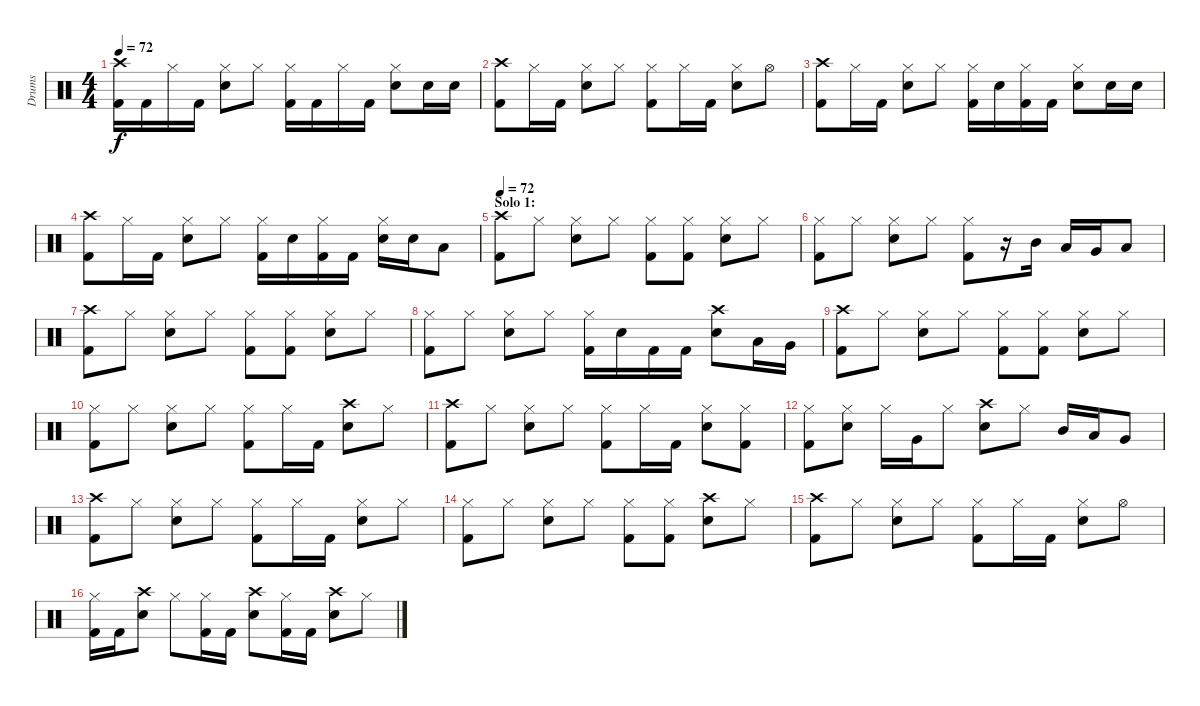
\track ("Drums" "Drums") {instrument percussion}
\staff {score}
\articulation defaults
\ts (4 4)
\tempo 72
\clef neutral
\ks c
("Crash high (hit)" "Kick (hit) 2").16{dy f} "Kick (hit) 2".16 "Hi-Hat (closed)".16 "Kick (hit) 2".16 ("Hi-Hat (closed)" "Electric Snare (hit)").8 "Hi-Hat (closed)".8 ("Hi-Hat (closed)" "Kick (hit) 2").16 "Kick (hit) 2".16 "Hi-Hat (closed)".16 "Kick (hit) 2".16 ("Hi-Hat (closed)" "Electric Snare (hit)").8 "Electric Snare (hit)".16 "Electric Snare (hit)".16 |
("Crash high (hit)" "Kick (hit) 2").8 "Hi-Hat (closed)".16 "Kick (hit) 2".16 ("Hi-Hat (closed)" "Electric Snare (hit)").8 "Hi-Hat (closed)".8 ("Hi-Hat (closed)" "Kick (hit) 2").8 "Hi-Hat (closed)".16 "Kick (hit) 2".16 ("Hi-Hat (closed)" "Electric Snare (hit)").8 "Hi-Hat (open)".8 |
("Crash high (hit)" "Kick (hit) 2").8 "Hi-Hat (closed)".16 "Kick (hit) 2".16 ("Hi-Hat (closed)" "Electric Snare (hit)").8 "Hi-Hat (closed)".8 ("Hi-Hat (closed)" "Kick (hit) 2").16 "Electric Snare (hit)".16 ("Hi-Hat (closed)" "Kick (hit) 2").16 "Kick (hit) 2".16 ("Hi-Hat (closed)" "Electric Snare (hit)").8 "Electric Snare (hit)".16 "Electric Snare (hit)".16 |
("Crash high (hit)" "Kick (hit) 2").8 "Hi-Hat (closed)".16 "Kick (hit) 2".16 ("Hi-Hat (closed)" "Electric Snare (hit)").8 "Hi-Hat (closed)".8 ("Hi-Hat (closed)" "Kick (hit) 2").16 "Electric Snare (hit)".16 ("Hi-Hat (closed)" "Kick (hit) 2").16 "Kick (hit) 2".16 ("Hi-Hat (closed)" "Electric Snare (hit)").16 "Electric Snare (hit)".16 "Low Tom (hit)".8 |
\section ("" "Solo 1:")
\tempo 72
("Crash high (hit)" "Kick (hit) 2").8 "Hi-Hat (closed)".8 ("Hi-Hat (closed)" "Electric Snare (hit)").8 "Hi-Hat (closed)".8 ("Hi-Hat (closed)" "Kick (hit) 2").8 ("Hi-Hat (closed)" "Kick (hit) 2").8 ("Hi-Hat (closed)" "Electric Snare (hit)").8 "Hi-Hat (closed)".8 |
("Hi-Hat (closed)" "Kick (hit) 2").8 "Hi-Hat (closed)".8 ("Hi-Hat (closed)" "Electric Snare (hit)").8 "Hi-Hat (closed)".8 ("Hi-Hat (closed)" "Kick (hit) 2").8 r.16 "Mid Tom (hit)".16 "Low Tom (hit)".16 "Very Low Tom (hit)".16 "Low Floor Tom (hit)".8 |
("Crash high (hit)" "Kick (hit) 2").8 "Hi-Hat (closed)".8 ("Hi-Hat (closed)" "Electric Snare (hit)").8 "Hi-Hat (closed)".8 ("Hi-Hat (closed)" "Kick (hit) 2").8 ("Hi-Hat (closed)" "Kick (hit) 2").8 ("Hi-Hat (closed)" "Electric Snare (hit)").8 "Hi-Hat (closed)".8 |
("Hi-Hat (closed)" "Kick (hit) 2").8 "Hi-Hat (closed)".8 ("Hi-Hat (closed)" "Electric Snare (hit)").8 "Hi-Hat (closed)".8 ("Hi-Hat (closed)" "Kick (hit) 2").16 "Electric Snare (hit)".16 "Kick (hit) 2".16 "Kick (hit) 2".16 ("Crash high (hit)" "Electric Snare (hit)").8 "Low Tom (hit)".16 "Very Low Tom (hit)".16 |
("Crash high (hit)" "Kick (hit) 2").8 "Hi-Hat (closed)".8 ("Hi-Hat (closed)" "Electric Snare (hit)").8 "Hi-Hat (closed)".8 ("Hi-Hat (closed)" "Kick (hit) 2").8 ("Hi-Hat (closed)" "Kick (hit) 2").8 ("Hi-Hat (closed)" "Electric Snare (hit)").8 "Hi-Hat (closed)".8 |
("Hi-Hat (closed)" "Kick (hit) 2").8 "Hi-Hat (closed)".8 ("Hi-Hat (closed)" "Electric Snare (hit)").8 "Hi-Hat (closed)".8 ("Hi-Hat (closed)" "Kick (hit) 2").8 "Hi-Hat (closed)".16 "Kick (hit) 2".16 ("Crash high (hit)" "Electric Snare (hit)").8 "Hi-Hat (closed)".8 |
("Crash high (hit)" "Kick (hit) 2").8 "Hi-Hat (closed)".8 ("Hi-Hat (closed)" "Electric Snare (hit)").8 "Hi-Hat (closed)".8 ("Hi-Hat (closed)" "Kick (hit) 2").8 "Hi-Hat (closed)".16 "Kick (hit) 2".16 ("Hi-Hat (closed)" "Electric Snare (hit)").8 ("Hi-Hat (closed)" "Kick (hit) 2").8 |
("Hi-Hat (closed)" "Kick (hit) 2").8 ("Hi-Hat (closed)" "Electric Snare (hit)").8 "Hi-Hat (closed)".16 "Very Low Tom (hit)".16 "Hi-Hat (closed)".8 ("Crash high (hit)" "Electric Snare (hit)").8 "Hi-Hat (closed)".8 "Mid Tom (hit)".16 "Low Tom (hit)".16 "Very Low Tom (hit)".8 |
("Crash high (hit)" "Kick (hit) 2").8 "Hi-Hat (closed)".8 ("Hi-Hat (closed)" "Electric Snare (hit)").8 "Hi-Hat (closed)".8 ("Hi-Hat (closed)" "Kick (hit) 2").8 "Hi-Hat (closed)".16 "Kick (hit) 2".16 ("Hi-Hat (closed)" "Electric Snare (hit)").8 "Hi-Hat (closed)".8 |
("Hi-Hat (closed)" "Kick (hit) 2").8 "Hi-Hat (closed)".8 ("Hi-Hat (closed)" "Electric Snare (hit)").8 "Hi-Hat (closed)".8 ("Hi-Hat (closed)" "Kick (hit) 2").8 ("Hi-Hat (closed)" "Kick (hit) 2").8 ("Crash high (hit)" "Electric Snare (hit)").8 "Hi-Hat (closed)".8 |
("Crash high (hit)" "Kick (hit) 2").8 "Hi-Hat (closed)".8 ("Hi-Hat (closed)" "Electric Snare (hit)").8 "Hi-Hat (closed)".8 ("Hi-Hat (closed)" "Kick (hit) 2").8 "Hi-Hat (closed)".16 "Kick (hit) 2".16 ("Hi-Hat (closed)" "Electric Snare (hit)").8 "Hi-Hat (open)".8 |
("Hi-Hat (closed)" "Kick (hit) 2").16 "Kick (hit) 2".16 ("Crash high (hit)" "Electric Snare (hit)").8 "Hi-Hat (closed)".8 ("Hi-Hat (closed)" "Kick (hit) 2").16 "Kick (hit) 2".16 ("Crash high (hit)" "Electric Snare (hit)").8 ("Hi-Hat (closed)" "Kick (hit) 2").16 "Kick (hit) 2".16 ("Crash high (hit)" "Electric Snare (hit)").8 "Hi-Hat (closed)".8
